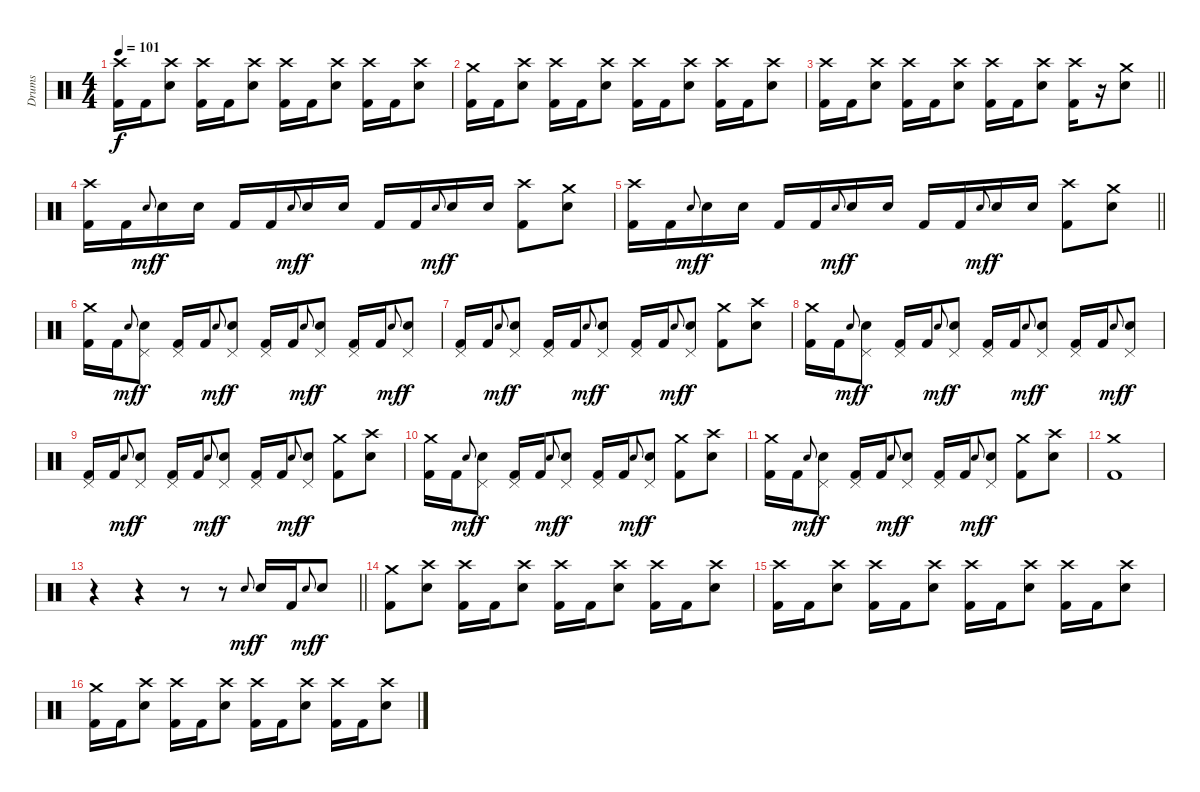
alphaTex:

\track ("Drums" "Drums") {instrument percussion}
\staff {score}
\articulation defaults
\ts (4 4)
\tempo 101
\clef neutral
\ks c
("Crash high (hit)" "Kick (hit) 2").16{dy f} "Kick (hit) 2".16 ("Crash high (hit)" "Electric Snare (hit)").8 ("Crash high (hit)" "Kick (hit) 2").16 "Kick (hit) 2".16 ("Crash high (hit)" "Electric Snare (hit)").8 ("Crash high (hit)" "Kick (hit) 2").16 "Kick (hit) 2".16 ("Crash high (hit)" "Electric Snare (hit)").8 ("Crash high (hit)" "Kick (hit) 2").16 "Kick (hit) 2".16 ("Crash high (hit)" "Electric Snare (hit)").8 |
("Crash medium (hit)" "Kick (hit) 2").16 "Kick (hit) 2".16 ("Crash high (hit)" "Electric Snare (hit)").8 ("Crash high (hit)" "Kick (hit) 2").16 "Kick (hit) 2".16 ("Crash high (hit)" "Electric Snare (hit)").8 ("Crash high (hit)" "Kick (hit) 2").16 "Kick (hit) 2".16 ("Crash high (hit)" "Electric Snare (hit)").8 ("Crash high (hit)" "Kick (hit) 2").16 "Kick (hit) 2".16 ("Crash high (hit)" "Electric Snare (hit)").8 |
\barLineRight lightlight
("Crash high (hit)" "Kick (hit) 2").16 "Kick (hit) 2".16 ("Crash high (hit)" "Electric Snare (hit)").8 ("Crash high (hit)" "Kick (hit) 2").16 "Kick (hit) 2".16 ("Crash high (hit)" "Electric Snare (hit)").8 ("Crash high (hit)" "Kick (hit) 2").16 "Kick (hit) 2".16 ("Crash high (hit)" "Electric Snare (hit)").8 ("Crash high (hit)" "Kick (hit) 2").16 r.16 ("Crash medium (hit)" "Electric Snare (hit)").8 |
("Crash high (hit)" "Kick (hit) 2").16 "Kick (hit) 2".16 "Electric Snare (hit)".8{gr onbeat dy mf} "Electric Snare (hit)".16{dy f} "Electric Snare (hit)".16 "Kick (hit) 2".16 "Kick (hit) 2".16 "Electric Snare (hit)".8{gr onbeat dy mf} "Electric Snare (hit)".16{dy f} "Electric Snare (hit)".16 "Kick (hit) 2".16 "Kick (hit) 2".16 "Electric Snare (hit)".8{gr onbeat dy mf} "Electric Snare (hit)".16{dy f} "Electric Snare (hit)".16 ("Crash high (hit)" "Kick (hit) 2").8 ("Crash medium (hit)" "Electric Snare (hit)").8 |
\barLineRight lightlight
("Crash high (hit)" "Kick (hit) 2").16 "Kick (hit) 2".16 "Electric Snare (hit)".8{gr onbeat dy mf} "Electric Snare (hit)".16{dy f} "Electric Snare (hit)".16 "Kick (hit) 2".16 "Kick (hit) 2".16 "Electric Snare (hit)".8{gr onbeat dy mf} "Electric Snare (hit)".16{dy f} "Electric Snare (hit)".16 "Kick (hit) 2".16 "Kick (hit) 2".16 "Electric Snare (hit)".8{gr onbeat dy mf} "Electric Snare (hit)".16{dy f} "Electric Snare (hit)".16 ("Crash high (hit)" "Kick (hit) 2").8 ("Crash medium (hit)" "Electric Snare (hit)").8 |
("Crash medium (hit)" "Kick (hit) 2").16 "Kick (hit) 2".16 "Electric Snare (hit)".8{gr onbeat dy mf} ("Pedal Hi-Hat (hit)" "Electric Snare (hit)").8{dy f} ("Pedal Hi-Hat (hit)" "Kick (hit) 2").16 "Kick (hit) 2".16 "Electric Snare (hit)".8{gr onbeat dy mf} ("Pedal Hi-Hat (hit)" "Electric Snare (hit)").8{dy f} ("Pedal Hi-Hat (hit)" "Kick (hit) 2").16 "Kick (hit) 2".16 "Electric Snare (hit)".8{gr onbeat dy mf} ("Pedal Hi-Hat (hit)" "Electric Snare (hit)").8{dy f} ("Pedal Hi-Hat (hit)" "Kick (hit) 2").16 "Kick (hit) 2".16 "Electric Snare (hit)".8{gr onbeat dy mf} ("Pedal Hi-Hat (hit)" "Electric Snare (hit)").8{dy f} |
("Pedal Hi-Hat (hit)" "Kick (hit) 2").16 "Kick (hit) 2".16 "Electric Snare (hit)".8{gr onbeat dy mf} ("Pedal Hi-Hat (hit)" "Electric Snare (hit)").8{dy f} ("Pedal Hi-Hat (hit)" "Kick (hit) 2").16 "Kick (hit) 2".16 "Electric Snare (hit)".8{gr onbeat dy mf} ("Pedal Hi-Hat (hit)" "Electric Snare (hit)").8{dy f} ("Pedal Hi-Hat (hit)" "Kick (hit) 2").16 "Kick (hit) 2".16 "Electric Snare (hit)".8{gr onbeat dy mf} ("Pedal Hi-Hat (hit)" "Electric Snare (hit)").8{dy f} ("Crash medium (hit)" "Kick (hit) 2").8 ("Crash high (hit)" "Electric Snare (hit)").8 |
("Crash medium (hit)" "Kick (hit) 2").16 "Kick (hit) 2".16 "Electric Snare (hit)".8{gr onbeat dy mf} ("Pedal Hi-Hat (hit)" "Electric Snare (hit)").8{dy f} ("Pedal Hi-Hat (hit)" "Kick (hit) 2").16 "Kick (hit) 2".16 "Electric Snare (hit)".8{gr onbeat dy mf} ("Pedal Hi-Hat (hit)" "Electric Snare (hit)").8{dy f} ("Pedal Hi-Hat (hit)" "Kick (hit) 2").16 "Kick (hit) 2".16 "Electric Snare (hit)".8{gr onbeat dy mf} ("Pedal Hi-Hat (hit)" "Electric Snare (hit)").8{dy f} ("Pedal Hi-Hat (hit)" "Kick (hit) 2").16 "Kick (hit) 2".16 "Electric Snare (hit)".8{gr onbeat dy mf} ("Pedal Hi-Hat (hit)" "Electric Snare (hit)").8{dy f} |
("Pedal Hi-Hat (hit)" "Kick (hit) 2").16 "Kick (hit) 2".16 "Electric Snare (hit)".8{gr onbeat dy mf} ("Pedal Hi-Hat (hit)" "Electric Snare (hit)").8{dy f} ("Pedal Hi-Hat (hit)" "Kick (hit) 2").16 "Kick (hit) 2".16 "Electric Snare (hit)".8{gr onbeat dy mf} ("Pedal Hi-Hat (hit)" "Electric Snare (hit)").8{dy f} ("Pedal Hi-Hat (hit)" "Kick (hit) 2").16 "Kick (hit) 2".16 "Electric Snare (hit)".8{gr onbeat dy mf} ("Pedal Hi-Hat (hit)" "Electric Snare (hit)").8{dy f} ("Crash medium (hit)" "Kick (hit) 2").8 ("Crash high (hit)" "Electric Snare (hit)").8 |
("Crash medium (hit)" "Kick (hit) 2").16 "Kick (hit) 2".16 "Electric Snare (hit)".8{gr onbeat dy mf} ("Pedal Hi-Hat (hit)" "Electric Snare (hit)").8{dy f} ("Pedal Hi-Hat (hit)" "Kick (hit) 2").16 "Kick (hit) 2".16 "Electric Snare (hit)".8{gr onbeat dy mf} ("Pedal Hi-Hat (hit)" "Electric Snare (hit)").8{dy f} ("Pedal Hi-Hat (hit)" "Kick (hit) 2").16 "Kick (hit) 2".16 "Electric Snare (hit)".8{gr onbeat dy mf} ("Pedal Hi-Hat (hit)" "Electric Snare (hit)").8{dy f} ("Crash medium (hit)" "Kick (hit) 2").8 ("Crash high (hit)" "Electric Snare (hit)").8 |
("Crash medium (hit)" "Kick (hit) 2").16 "Kick (hit) 2".16 "Electric Snare (hit)".8{gr onbeat dy mf} ("Pedal Hi-Hat (hit)" "Electric Snare (hit)").8{dy f} ("Pedal Hi-Hat (hit)" "Kick (hit) 2").16 "Kick (hit) 2".16 "Electric Snare (hit)".8{gr onbeat dy mf} ("Pedal Hi-Hat (hit)" "Electric Snare (hit)").8{dy f} ("Pedal Hi-Hat (hit)" "Kick (hit) 2").16 "Kick (hit) 2".16 "Electric Snare (hit)".8{gr onbeat dy mf} ("Pedal Hi-Hat (hit)" "Electric Snare (hit)").8{dy f} ("Crash medium (hit)" "Kick (hit) 2").8 ("Crash high (hit)" "Electric Snare (hit)").8 |
("Crash medium (hit)" "Kick (hit) 2").1 |
\barLineRight lightlight
r.4 r.4 r.8 r.8 "Electric Snare (hit)".8{gr onbeat dy mf} "Electric Snare (hit)".16{dy f} "Kick (hit) 2".16 "Electric Snare (hit)".8{gr onbeat dy mf} "Electric Snare (hit)".8{dy f} |
("Crash medium (hit)" "Kick (hit) 2").8 ("Crash high (hit)" "Electric Snare (hit)").8 ("Crash high (hit)" "Kick (hit) 2").16 "Kick (hit) 2".16 ("Crash high (hit)" "Electric Snare (hit)").8 ("Crash high (hit)" "Kick (hit) 2").16 "Kick (hit) 2".16 ("Crash high (hit)" "Electric Snare (hit)").8 ("Crash high (hit)" "Kick (hit) 2").16 "Kick (hit) 2".16 ("Crash high (hit)" "Electric Snare (hit)").8 |
("Crash high (hit)" "Kick (hit) 2").16 "Kick (hit) 2".16 ("Crash high (hit)" "Electric Snare (hit)").8 ("Crash high (hit)" "Kick (hit) 2").16 "Kick (hit) 2".16 ("Crash high (hit)" "Electric Snare (hit)").8 ("Crash high (hit)" "Kick (hit) 2").16 "Kick (hit) 2".16 ("Crash high (hit)" "Electric Snare (hit)").8 ("Crash high (hit)" "Kick (hit) 2").16 "Kick (hit) 2".16 ("Crash high (hit)" "Electric Snare (hit)").8 |
("Crash medium (hit)" "Kick (hit) 2").16 "Kick (hit) 2".16 ("Crash high (hit)" "Electric Snare (hit)").8 ("Crash high (hit)" "Kick (hit) 2").16 "Kick (hit) 2".16 ("Crash high (hit)" "Electric Snare (hit)").8 ("Crash high (hit)" "Kick (hit) 2").16 "Kick (hit) 2".16 ("Crash high (hit)" "Electric Snare (hit)").8 ("Crash high (hit)" "Kick (hit) 2").16 "Kick (hit) 2".16 ("Crash high (hit)" "Electric Snare (hit)").8
